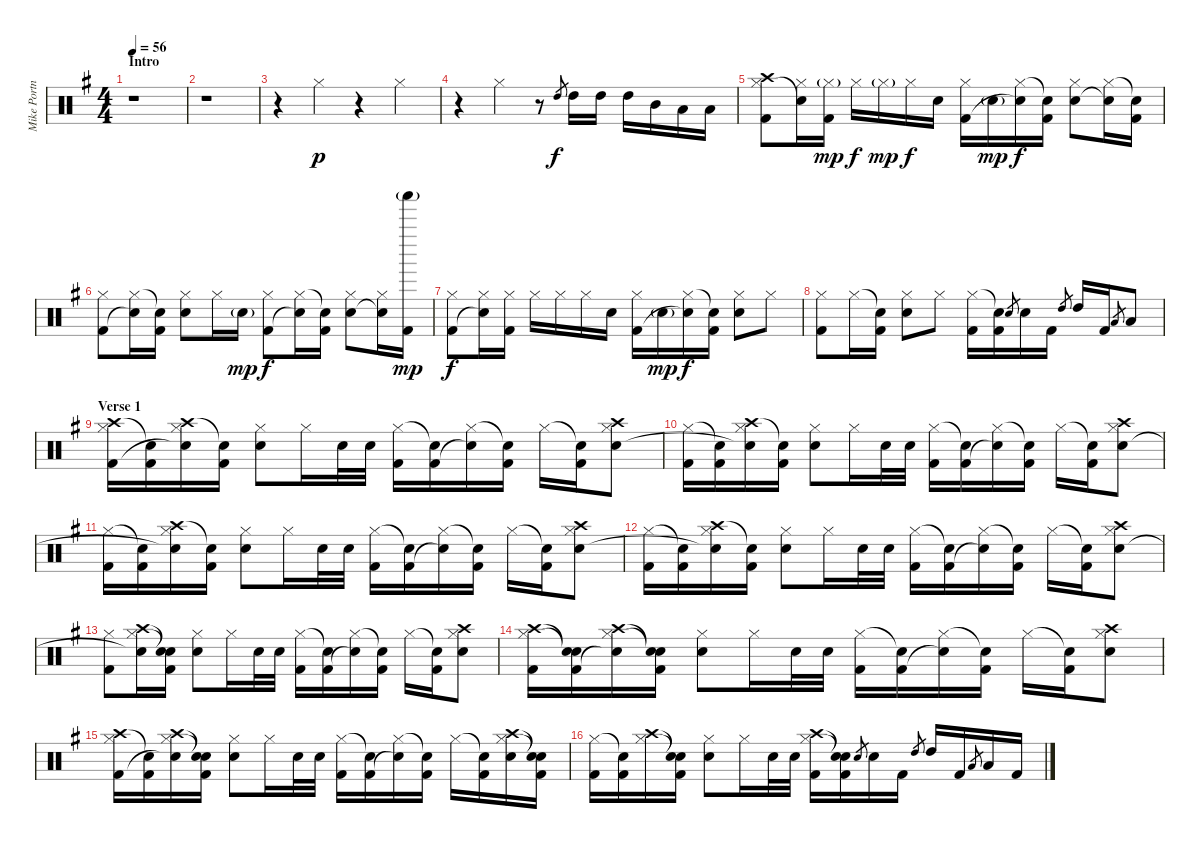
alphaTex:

\track ("Mike Portnoy" "Mike Portn") {instrument percussion}
\staff {score}
\articulation defaults
\ts (4 4)
\section ("" "Intro")
\tempo 56
\clef neutral
\ks g
r.1{dy p} |
r.1 |
r.4 "Hi-Hat (closed)".4 r.4 "Hi-Hat (closed)".4 |
r.4 "Hi-Hat (closed)".4 r.8 "High Tom (hit)".8{gr dy f} "High Tom (hit)".16 "High Tom (hit)".16 "High Tom (hit)".16 "Mid Tom (hit)".16 "Low Tom (hit)".16 "Low Tom (hit)".16 |
("Crash high (hit)" "Hi-Hat (closed)" "Kick (hit) 2").8 ("Hi-Hat (closed)" "Snare (hit)"{t}).16 ("Hi-Hat (closed)"{g} "Kick (hit) 2").16{dy mp} "Hi-Hat (closed)".16{dy f} "Hi-Hat (closed)"{g}.16{dy mp} "Hi-Hat (closed)".16{dy f} "Snare (hit) 2".16 ("Hi-Hat (closed)" "Kick (hit) 2").16 "Snare (hit) 2"{g}.16{dy mp} ("Hi-Hat (closed)" "Snare (hit)"{t}).16{dy f} ("Snare (hit)"{t} "Kick (hit) 2").16 ("Hi-Hat (closed)" "Snare (hit) 2").8 ("Hi-Hat (closed)" "Snare (hit)"{t}).16 ("Snare (hit)"{t} "Kick (hit) 2").16 |
("Hi-Hat (closed)" "Kick (hit) 2").8 ("Hi-Hat (closed)" "Snare (hit)"{t}).16 ("Snare (hit)"{t} "Kick (hit) 2").16 ("Hi-Hat (closed)" "Snare (hit) 2").8 "Hi-Hat (closed)".16 "Snare (hit) 2"{g}.16{dy mp} ("Hi-Hat (closed)" "Kick (hit) 2").8{dy f} ("Hi-Hat (closed)" "Snare (hit)"{t}).16 ("Snare (hit)"{t} "Kick (hit) 2").16 ("Hi-Hat (closed)" "Snare (hit) 2").8 ("Hi-Hat (closed)" "Snare (hit)"{t}).16 ("Shaker (hit)"{g} "Kick (hit) 2").16{dy mp} |
("Hi-Hat (closed)" "Kick (hit) 2").8{dy f} ("Hi-Hat (closed)" "Snare (hit)"{t}).16 ("Hi-Hat (closed)" "Kick (hit) 2").16 "Hi-Hat (closed)".16 "Hi-Hat (closed)".16 "Hi-Hat (closed)".16 "Snare (hit) 2".16 ("Hi-Hat (closed)" "Kick (hit) 2").16 "Snare (hit) 2"{g}.16{dy mp} ("Hi-Hat (closed)" "Snare (hit)"{t}).16{dy f} ("Snare (hit)"{t} "Kick (hit) 2").16 ("Hi-Hat (closed)" "Snare (hit) 2").8 "Hi-Hat (closed)".8 |
("Hi-Hat (closed)" "Kick (hit) 2").8 "Hi-Hat (closed)".16 ("Snare (hit)"{t} "Kick (hit) 2").16 ("Hi-Hat (closed)" "Snare (hit) 2").8 "Hi-Hat (closed)".8 ("Hi-Hat (closed)" "Kick (hit) 2").16 ("Snare (hit)"{t} "Kick (hit) 2").16 "Snare (hit) 2".8{gr} "Snare (hit) 2".16 "Kick (hit) 2".16 "High Tom (hit)".8{gr} "High Tom (hit)".16 "Kick (hit) 2".16 "Low Tom (hit)".8{gr} "Low Tom (hit)".8 |
\section ("" "Verse 1")
("Crash high (hit)" "Hi-Hat (closed)" "Kick (hit) 2").16 ("Snare (hit)"{t} "Kick (hit) 2").16 ("Crash high (hit)" "Hi-Hat (closed)" "Snare (hit)"{t}).16 ("Snare (hit)"{t} "Kick (hit) 2").16 ("Hi-Hat (closed)" "Snare (hit) 2").8 "Hi-Hat (closed)".16 "Snare (hit) 2".32 "Snare (hit) 2".32 ("Hi-Hat (closed)" "Kick (hit) 2").16 ("Snare (hit)"{t} "Kick (hit) 2").16 ("Hi-Hat (closed)" "Snare (hit)"{t}).16 ("Snare (hit)"{t} "Kick (hit) 2").16 "Hi-Hat (closed)".16 ("Snare (hit)"{t} "Kick (hit) 2").16 ("Crash high (hit)" "Hi-Hat (closed)" "Snare (hit) 2").8 |
("Hi-Hat (closed)" "Kick (hit) 2").16 ("Snare (hit)"{t} "Kick (hit) 2").16 ("Crash high (hit)" "Hi-Hat (closed)" "Snare (hit)"{t}).16 ("Snare (hit)"{t} "Kick (hit) 2").16 ("Hi-Hat (closed)" "Snare (hit) 2").8 "Hi-Hat (closed)".16 "Snare (hit) 2".32 "Snare (hit) 2".32 ("Hi-Hat (closed)" "Kick (hit) 2").16 ("Snare (hit)"{t} "Kick (hit) 2").16 ("Hi-Hat (closed)" "Snare (hit)"{t}).16 ("Snare (hit)"{t} "Kick (hit) 2").16 "Hi-Hat (closed)".16 ("Snare (hit)"{t} "Kick (hit) 2").16 ("Crash high (hit)" "Hi-Hat (closed)" "Snare (hit) 2").8 |
("Hi-Hat (closed)" "Kick (hit) 2").16 ("Snare (hit)"{t} "Kick (hit) 2").16 ("Crash high (hit)" "Hi-Hat (closed)" "Snare (hit)"{t}).16 ("Snare (hit)"{t} "Kick (hit) 2").16 ("Hi-Hat (closed)" "Snare (hit) 2").8 "Hi-Hat (closed)".16 "Snare (hit) 2".32 "Snare (hit) 2".32 ("Hi-Hat (closed)" "Kick (hit) 2").16 ("Snare (hit)"{t} "Kick (hit) 2").16 ("Hi-Hat (closed)" "Snare (hit)"{t}).16 ("Snare (hit)"{t} "Kick (hit) 2").16 "Hi-Hat (closed)".16 ("Snare (hit)"{t} "Kick (hit) 2").16 ("Crash high (hit)" "Hi-Hat (closed)" "Snare (hit) 2").8 |
("Hi-Hat (closed)" "Kick (hit) 2").16 ("Snare (hit)"{t} "Kick (hit) 2").16 ("Crash high (hit)" "Hi-Hat (closed)" "Snare (hit)"{t}).16 ("Snare (hit)"{t} "Kick (hit) 2").16 ("Hi-Hat (closed)" "Snare (hit) 2").8 "Hi-Hat (closed)".16 "Snare (hit) 2".32 "Snare (hit) 2".32 ("Hi-Hat (closed)" "Kick (hit) 2").16 ("Snare (hit)"{t} "Kick (hit) 2").16 ("Hi-Hat (closed)" "Snare (hit)"{t}).16 ("Snare (hit)"{t} "Kick (hit) 2").16 "Hi-Hat (closed)".16 ("Snare (hit)"{t} "Kick (hit) 2").16 ("Crash high (hit)" "Hi-Hat (closed)" "Snare (hit) 2").8 |
("Hi-Hat (closed)" "Kick (hit) 2").8 ("Crash high (hit)" "Hi-Hat (closed)" "Snare (hit)"{t}).16 ("Snare (hit)"{t} "Snare (hit)"{t} "Kick (hit) 2").16 ("Hi-Hat (closed)" "Snare (hit) 2").8 "Hi-Hat (closed)".16 "Snare (hit) 2".32 "Snare (hit) 2".32 ("Hi-Hat (closed)" "Kick (hit) 2").16 ("Snare (hit)"{t} "Kick (hit) 2").16 ("Hi-Hat (closed)" "Snare (hit)"{t}).16 ("Snare (hit)"{t} "Kick (hit) 2").16 "Hi-Hat (closed)".16 ("Snare (hit)"{t} "Kick (hit) 2").16 ("Crash high (hit)" "Hi-Hat (closed)" "Snare (hit) 2").8 |
("Crash high (hit)" "Hi-Hat (closed)" "Kick (hit) 2").16 ("Snare (hit)"{t} "Snare (hit)"{t} "Kick (hit) 2").16 ("Crash high (hit)" "Hi-Hat (closed)" "Snare (hit)"{t}).16 ("Snare (hit)"{t} "Snare (hit)"{t} "Kick (hit) 2").16 ("Hi-Hat (closed)" "Snare (hit) 2").8 "Hi-Hat (closed)".16 "Snare (hit) 2".32 "Snare (hit) 2".32 ("Hi-Hat (closed)" "Kick (hit) 2").16 ("Snare (hit)"{t} "Kick (hit) 2").16 ("Hi-Hat (closed)" "Snare (hit)"{t}).16 ("Snare (hit)"{t} "Kick (hit) 2").16 "Hi-Hat (closed)".16 ("Snare (hit)"{t} "Kick (hit) 2").16 ("Crash high (hit)" "Hi-Hat (closed)" "Snare (hit) 2").8 |
("Crash high (hit)" "Hi-Hat (closed)" "Kick (hit) 2").16 ("Snare (hit)"{t} "Kick (hit) 2").16 ("Crash high (hit)" "Hi-Hat (closed)" "Snare (hit)"{t}).16 ("Snare (hit)"{t} "Snare (hit)"{t} "Kick (hit) 2").16 ("Hi-Hat (closed)" "Snare (hit) 2").8 "Hi-Hat (closed)".16 "Snare (hit) 2".32 "Snare (hit) 2".32 ("Hi-Hat (closed)" "Kick (hit) 2").16 ("Snare (hit)"{t} "Kick (hit) 2").16 ("Hi-Hat (closed)" "Snare (hit)"{t}).16 ("Snare (hit)"{t} "Kick (hit) 2").16 "Hi-Hat (closed)".16 ("Snare (hit)"{t} "Kick (hit) 2").16 ("Crash high (hit)" "Hi-Hat (closed)" "Snare (hit) 2").16 ("Snare (hit)"{t} "Snare (hit)"{t} "Kick (hit) 2").16 |
("Hi-Hat (closed)" "Kick (hit) 2").16 ("Snare (hit)"{t} "Kick (hit) 2").16 ("Crash high (hit)" "Hi-Hat (closed)").16 ("Snare (hit)"{t} "Snare (hit)"{t} "Kick (hit) 2").16 ("Hi-Hat (closed)" "Snare (hit) 2").8 "Hi-Hat (closed)".16 "Snare (hit) 2".32 "Snare (hit) 2".32 ("Crash high (hit)" "Hi-Hat (closed)" "Kick (hit) 2").16 ("Snare (hit)"{t} "Snare (hit)"{t} "Kick (hit) 2").16 "Snare (hit) 2".8{gr} "Snare (hit) 2".16 "Kick (hit) 2".16 "High Tom (hit)".8{gr} "High Tom (hit)".16 "Kick (hit) 2".16 "Low Tom (hit)".8{gr} "Low Tom (hit)".16 "Kick (hit) 2".16
